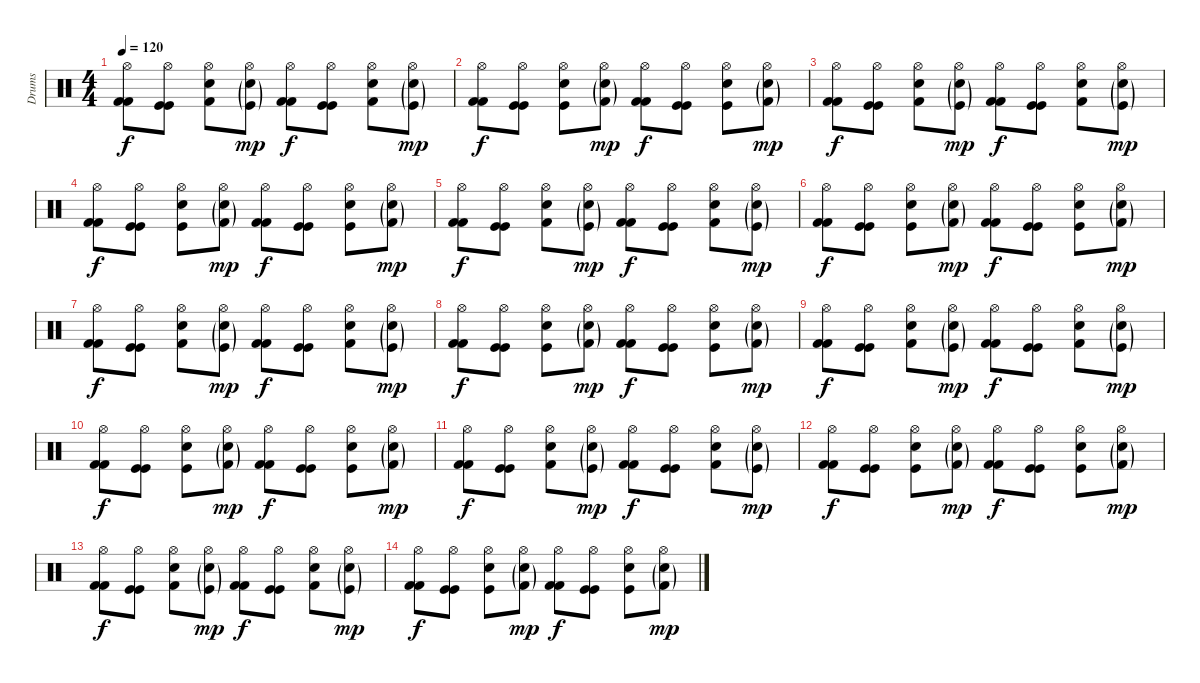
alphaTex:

\track ("Drums" "Drums") {instrument percussion}
\staff {score}
\articulation defaults
\ts (4 4)
\tempo 120
\clef neutral
\ks c
("Hi-Hat (open)" "Kick (hit) 2" "Kick (hit) 2").8{dy f} ("Hi-Hat (open)" "Kick (hit)" "Kick (hit)").8 ("Hi-Hat (open)" "Snare (hit) 2" "Kick (hit) 2").8 ("Hi-Hat (open)" "Electric Snare (hit)"{g} "Kick (hit)"{g}).8{dy mp} ("Hi-Hat (open)" "Kick (hit) 2" "Kick (hit) 2").8{dy f} ("Hi-Hat (open)" "Kick (hit)" "Kick (hit)").8 ("Hi-Hat (open)" "Snare (hit) 2" "Kick (hit) 2").8 ("Hi-Hat (open)" "Electric Snare (hit)"{g} "Kick (hit)"{g}).8{dy mp} |
("Hi-Hat (open)" "Kick (hit) 2" "Kick (hit) 2").8{dy f} ("Hi-Hat (open)" "Kick (hit)" "Kick (hit)").8 ("Hi-Hat (open)" "Electric Snare (hit)" "Kick (hit)").8 ("Hi-Hat (open)" "Snare (hit) 2"{g} "Kick (hit) 2"{g}).8{dy mp} ("Hi-Hat (open)" "Kick (hit) 2" "Kick (hit) 2").8{dy f} ("Hi-Hat (open)" "Kick (hit)" "Kick (hit)").8 ("Hi-Hat (open)" "Electric Snare (hit)" "Kick (hit)").8 ("Hi-Hat (open)" "Snare (hit) 2"{g} "Kick (hit) 2"{g}).8{dy mp} |
("Hi-Hat (open)" "Kick (hit) 2" "Kick (hit) 2").8{dy f} ("Hi-Hat (open)" "Kick (hit)" "Kick (hit)").8 ("Hi-Hat (open)" "Snare (hit) 2" "Kick (hit) 2").8 ("Hi-Hat (open)" "Electric Snare (hit)"{g} "Kick (hit)"{g}).8{dy mp} ("Hi-Hat (open)" "Kick (hit) 2" "Kick (hit) 2").8{dy f} ("Hi-Hat (open)" "Kick (hit)" "Kick (hit)").8 ("Hi-Hat (open)" "Snare (hit) 2" "Kick (hit) 2").8 ("Hi-Hat (open)" "Electric Snare (hit)"{g} "Kick (hit)"{g}).8{dy mp} |
("Hi-Hat (open)" "Kick (hit) 2" "Kick (hit) 2").8{dy f} ("Hi-Hat (open)" "Kick (hit)" "Kick (hit)").8 ("Hi-Hat (open)" "Electric Snare (hit)" "Kick (hit)").8 ("Hi-Hat (open)" "Snare (hit) 2"{g} "Kick (hit) 2"{g}).8{dy mp} ("Hi-Hat (open)" "Kick (hit) 2" "Kick (hit) 2").8{dy f} ("Hi-Hat (open)" "Kick (hit)" "Kick (hit)").8 ("Hi-Hat (open)" "Electric Snare (hit)" "Kick (hit)").8 ("Hi-Hat (open)" "Snare (hit) 2"{g} "Kick (hit) 2"{g}).8{dy mp} |
("Hi-Hat (open)" "Kick (hit) 2" "Kick (hit) 2").8{dy f} ("Hi-Hat (open)" "Kick (hit)" "Kick (hit)").8 ("Hi-Hat (open)" "Snare (hit) 2" "Kick (hit) 2").8 ("Hi-Hat (open)" "Electric Snare (hit)"{g} "Kick (hit)"{g}).8{dy mp} ("Hi-Hat (open)" "Kick (hit) 2" "Kick (hit) 2").8{dy f} ("Hi-Hat (open)" "Kick (hit)" "Kick (hit)").8 ("Hi-Hat (open)" "Snare (hit) 2" "Kick (hit) 2").8 ("Hi-Hat (open)" "Electric Snare (hit)"{g} "Kick (hit)"{g}).8{dy mp} |
("Hi-Hat (open)" "Kick (hit) 2" "Kick (hit) 2").8{dy f} ("Hi-Hat (open)" "Kick (hit)" "Kick (hit)").8 ("Hi-Hat (open)" "Electric Snare (hit)" "Kick (hit)").8 ("Hi-Hat (open)" "Snare (hit) 2"{g} "Kick (hit) 2"{g}).8{dy mp} ("Hi-Hat (open)" "Kick (hit) 2" "Kick (hit) 2").8{dy f} ("Hi-Hat (open)" "Kick (hit)" "Kick (hit)").8 ("Hi-Hat (open)" "Electric Snare (hit)" "Kick (hit)").8 ("Hi-Hat (open)" "Snare (hit) 2"{g} "Kick (hit) 2"{g}).8{dy mp} |
("Hi-Hat (open)" "Kick (hit) 2" "Kick (hit) 2").8{dy f} ("Hi-Hat (open)" "Kick (hit)" "Kick (hit)").8 ("Hi-Hat (open)" "Snare (hit) 2" "Kick (hit) 2").8 ("Hi-Hat (open)" "Electric Snare (hit)"{g} "Kick (hit)"{g}).8{dy mp} ("Hi-Hat (open)" "Kick (hit) 2" "Kick (hit) 2").8{dy f} ("Hi-Hat (open)" "Kick (hit)" "Kick (hit)").8 ("Hi-Hat (open)" "Snare (hit) 2" "Kick (hit) 2").8 ("Hi-Hat (open)" "Electric Snare (hit)"{g} "Kick (hit)"{g}).8{dy mp} |
("Hi-Hat (open)" "Kick (hit) 2" "Kick (hit) 2").8{dy f} ("Hi-Hat (open)" "Kick (hit)" "Kick (hit)").8 ("Hi-Hat (open)" "Electric Snare (hit)" "Kick (hit)").8 ("Hi-Hat (open)" "Snare (hit) 2"{g} "Kick (hit) 2"{g}).8{dy mp} ("Hi-Hat (open)" "Kick (hit) 2" "Kick (hit) 2").8{dy f} ("Hi-Hat (open)" "Kick (hit)" "Kick (hit)").8 ("Hi-Hat (open)" "Electric Snare (hit)" "Kick (hit)").8 ("Hi-Hat (open)" "Snare (hit) 2"{g} "Kick (hit) 2"{g}).8{dy mp} |
("Hi-Hat (open)" "Kick (hit) 2" "Kick (hit) 2").8{dy f} ("Hi-Hat (open)" "Kick (hit)" "Kick (hit)").8 ("Hi-Hat (open)" "Snare (hit) 2" "Kick (hit) 2").8 ("Hi-Hat (open)" "Electric Snare (hit)"{g} "Kick (hit)"{g}).8{dy mp} ("Hi-Hat (open)" "Kick (hit) 2" "Kick (hit) 2").8{dy f} ("Hi-Hat (open)" "Kick (hit)" "Kick (hit)").8 ("Hi-Hat (open)" "Snare (hit) 2" "Kick (hit) 2").8 ("Hi-Hat (open)" "Electric Snare (hit)"{g} "Kick (hit)"{g}).8{dy mp} |
("Hi-Hat (open)" "Kick (hit) 2" "Kick (hit) 2").8{dy f} ("Hi-Hat (open)" "Kick (hit)" "Kick (hit)").8 ("Hi-Hat (open)" "Electric Snare (hit)" "Kick (hit)").8 ("Hi-Hat (open)" "Snare (hit) 2"{g} "Kick (hit) 2"{g}).8{dy mp} ("Hi-Hat (open)" "Kick (hit) 2" "Kick (hit) 2").8{dy f} ("Hi-Hat (open)" "Kick (hit)" "Kick (hit)").8 ("Hi-Hat (open)" "Electric Snare (hit)" "Kick (hit)").8 ("Hi-Hat (open)" "Snare (hit) 2"{g} "Kick (hit) 2"{g}).8{dy mp} |
("Hi-Hat (open)" "Kick (hit) 2" "Kick (hit) 2").8{dy f} ("Hi-Hat (open)" "Kick (hit)" "Kick (hit)").8 ("Hi-Hat (open)" "Snare (hit) 2" "Kick (hit) 2").8 ("Hi-Hat (open)" "Electric Snare (hit)"{g} "Kick (hit)"{g}).8{dy mp} ("Hi-Hat (open)" "Kick (hit) 2" "Kick (hit) 2").8{dy f} ("Hi-Hat (open)" "Kick (hit)" "Kick (hit)").8 ("Hi-Hat (open)" "Snare (hit) 2" "Kick (hit) 2").8 ("Hi-Hat (open)" "Electric Snare (hit)"{g} "Kick (hit)"{g}).8{dy mp} |
("Hi-Hat (open)" "Kick (hit) 2" "Kick (hit) 2").8{dy f} ("Hi-Hat (open)" "Kick (hit)" "Kick (hit)").8 ("Hi-Hat (open)" "Electric Snare (hit)" "Kick (hit)").8 ("Hi-Hat (open)" "Snare (hit) 2"{g} "Kick (hit) 2"{g}).8{dy mp} ("Hi-Hat (open)" "Kick (hit) 2" "Kick (hit) 2").8{dy f} ("Hi-Hat (open)" "Kick (hit)" "Kick (hit)").8 ("Hi-Hat (open)" "Electric Snare (hit)" "Kick (hit)").8 ("Hi-Hat (open)" "Snare (hit) 2"{g} "Kick (hit) 2"{g}).8{dy mp} |
("Hi-Hat (open)" "Kick (hit) 2" "Kick (hit) 2").8{dy f} ("Hi-Hat (open)" "Kick (hit)" "Kick (hit)").8 ("Hi-Hat (open)" "Snare (hit) 2" "Kick (hit) 2").8 ("Hi-Hat (open)" "Electric Snare (hit)"{g} "Kick (hit)"{g}).8{dy mp} ("Hi-Hat (open)" "Kick (hit) 2" "Kick (hit) 2").8{dy f} ("Hi-Hat (open)" "Kick (hit)" "Kick (hit)").8 ("Hi-Hat (open)" "Snare (hit) 2" "Kick (hit) 2").8 ("Hi-Hat (open)" "Electric Snare (hit)"{g} "Kick (hit)"{g}).8{dy mp} |
("Hi-Hat (open)" "Kick (hit) 2" "Kick (hit) 2").8{dy f} ("Hi-Hat (open)" "Kick (hit)" "Kick (hit)").8 ("Hi-Hat (open)" "Electric Snare (hit)" "Kick (hit)").8 ("Hi-Hat (open)" "Snare (hit) 2"{g} "Kick (hit) 2"{g}).8{dy mp} ("Hi-Hat (open)" "Kick (hit) 2" "Kick (hit) 2").8{dy f} ("Hi-Hat (open)" "Kick (hit)" "Kick (hit)").8 ("Hi-Hat (open)" "Electric Snare (hit)" "Kick (hit)").8 ("Hi-Hat (open)" "Snare (hit) 2"{g} "Kick (hit) 2"{g}).8{dy mp}
